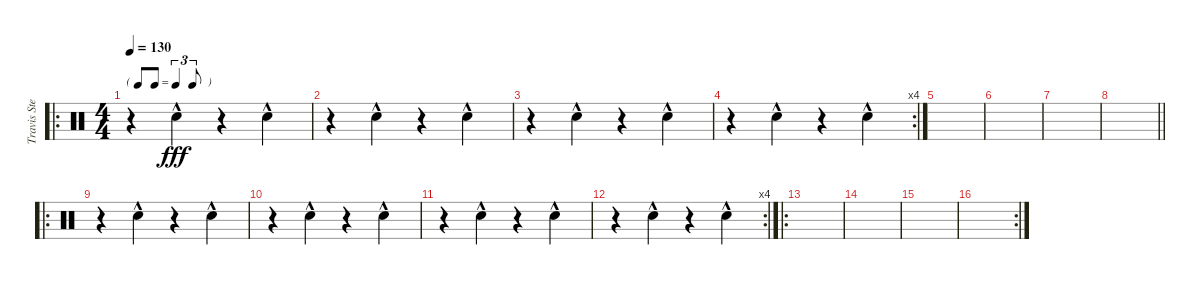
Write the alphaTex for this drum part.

\track ("Travis Stever (Hand Claps)" "Travis Ste") {instrument percussion}
\staff {score}
\articulation defaults
\ro
\ts (4 4)
\tf triplet8th
\tempo 130
\clef neutral
\ks c
r.4{dy fff} "Hand Clap (hit)"{hac}.4 r.4 "Hand Clap (hit)"{hac}.4 |
r.4 "Hand Clap (hit)"{hac}.4 r.4 "Hand Clap (hit)"{hac}.4 |
r.4 "Hand Clap (hit)"{hac}.4 r.4 "Hand Clap (hit)"{hac}.4 |
\rc 4
r.4 "Hand Clap (hit)"{hac}.4 r.4 "Hand Clap (hit)"{hac}.4 |
|
|
|
\barLineRight lightlight
|
\ro
r.4 "Hand Clap (hit)"{hac}.4 r.4 "Hand Clap (hit)"{hac}.4 |
r.4 "Hand Clap (hit)"{hac}.4 r.4 "Hand Clap (hit)"{hac}.4 |
r.4 "Hand Clap (hit)"{hac}.4 r.4 "Hand Clap (hit)"{hac}.4 |
\rc 4
r.4 "Hand Clap (hit)"{hac}.4 r.4 "Hand Clap (hit)"{hac}.4 |
\ro
|
|
|
\rc 2
